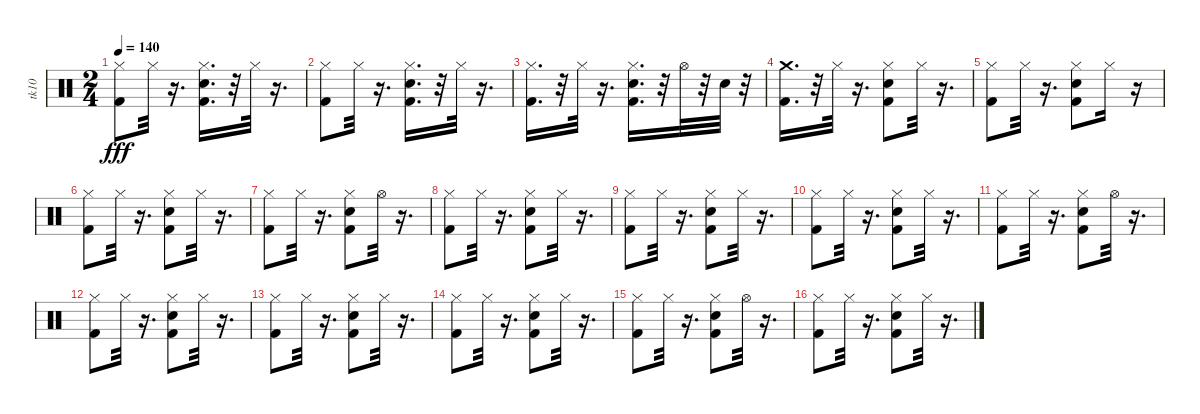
\track ("tk10" "tk10") {instrument percussion}
\staff {score}
\articulation defaults
\ts (2 4)
\tempo 140
\clef neutral
\ks c
("Kick (hit) 2" "Hi-Hat (closed)").8{dy fff} "Hi-Hat (closed)".32 r.16{d} ("Kick (hit) 2" "Hi-Hat (closed)" "Snare (hit) 2").16{d} r.32 "Hi-Hat (closed)".32 r.16{d} |
("Kick (hit) 2" "Hi-Hat (closed)").8 "Hi-Hat (closed)".32 r.16{d} ("Snare (hit) 2" "Kick (hit) 2" "Hi-Hat (closed)").16{d} r.32 "Hi-Hat (closed)".32 r.16{d} |
("Kick (hit) 2" "Hi-Hat (closed)").16{d} r.32 "Hi-Hat (closed)".32 r.16{d} ("Snare (hit) 2" "Kick (hit) 2" "Hi-Hat (closed)").16{d} r.32 "Hi-Hat (open)".32 r.32 "Snare (hit) 2".32 r.32 |
("Kick (hit) 2" "Crash medium (hit)").16{d} r.32 "Hi-Hat (closed)".32 r.16{d} ("Snare (hit) 2" "Hi-Hat (closed)" "Kick (hit) 2").8 "Hi-Hat (closed)".32 r.16{d} |
("Kick (hit) 2" "Hi-Hat (closed)").8 "Hi-Hat (closed)".32 r.16{d} ("Snare (hit) 2" "Kick (hit) 2" "Hi-Hat (closed)").8 "Hi-Hat (closed)".16 r.16 |
("Kick (hit) 2" "Hi-Hat (closed)").8 "Hi-Hat (closed)".32 r.16{d} ("Snare (hit) 2" "Kick (hit) 2" "Hi-Hat (closed)").8 "Hi-Hat (closed)".32 r.16{d} |
("Kick (hit) 2" "Hi-Hat (closed)").8 "Hi-Hat (closed)".32 r.16{d} ("Kick (hit) 2" "Snare (hit) 2" "Hi-Hat (closed)").8 "Hi-Hat (open)".32 r.16{d} |
("Kick (hit) 2" "Hi-Hat (closed)").8 "Hi-Hat (closed)".32 r.16{d} ("Snare (hit) 2" "Kick (hit) 2" "Hi-Hat (closed)").8 "Hi-Hat (closed)".32 r.16{d} |
("Kick (hit) 2" "Hi-Hat (closed)").8 "Hi-Hat (closed)".32 r.16{d} ("Snare (hit) 2" "Kick (hit) 2" "Hi-Hat (closed)").8 "Hi-Hat (closed)".32 r.16{d} |
("Kick (hit) 2" "Hi-Hat (closed)").8 "Hi-Hat (closed)".32 r.16{d} ("Snare (hit) 2" "Kick (hit) 2" "Hi-Hat (closed)").8 "Hi-Hat (closed)".32 r.16{d} |
("Kick (hit) 2" "Hi-Hat (closed)").8 "Hi-Hat (closed)".32 r.16{d} ("Snare (hit) 2" "Kick (hit) 2" "Hi-Hat (closed)").8 "Hi-Hat (open)".32 r.16{d} |
("Kick (hit) 2" "Hi-Hat (closed)").8 "Hi-Hat (closed)".32 r.16{d} ("Snare (hit) 2" "Kick (hit) 2" "Hi-Hat (closed)").8 "Hi-Hat (closed)".32 r.16{d} |
("Kick (hit) 2" "Hi-Hat (closed)").8 "Hi-Hat (closed)".32 r.16{d} ("Snare (hit) 2" "Kick (hit) 2" "Hi-Hat (closed)").8 "Hi-Hat (closed)".32 r.16{d} |
("Kick (hit) 2" "Hi-Hat (closed)").8 "Hi-Hat (closed)".32 r.16{d} ("Snare (hit) 2" "Kick (hit) 2" "Hi-Hat (closed)").8 "Hi-Hat (closed)".32 r.16{d} |
("Kick (hit) 2" "Hi-Hat (closed)").8 "Hi-Hat (closed)".32 r.16{d} ("Snare (hit) 2" "Kick (hit) 2" "Hi-Hat (closed)").8 "Hi-Hat (open)".32 r.16{d} |
("Kick (hit) 2" "Hi-Hat (closed)").8 "Hi-Hat (closed)".32 r.16{d} ("Hi-Hat (closed)" "Snare (hit) 2" "Kick (hit) 2").8 "Hi-Hat (closed)".32 r.16{d}
